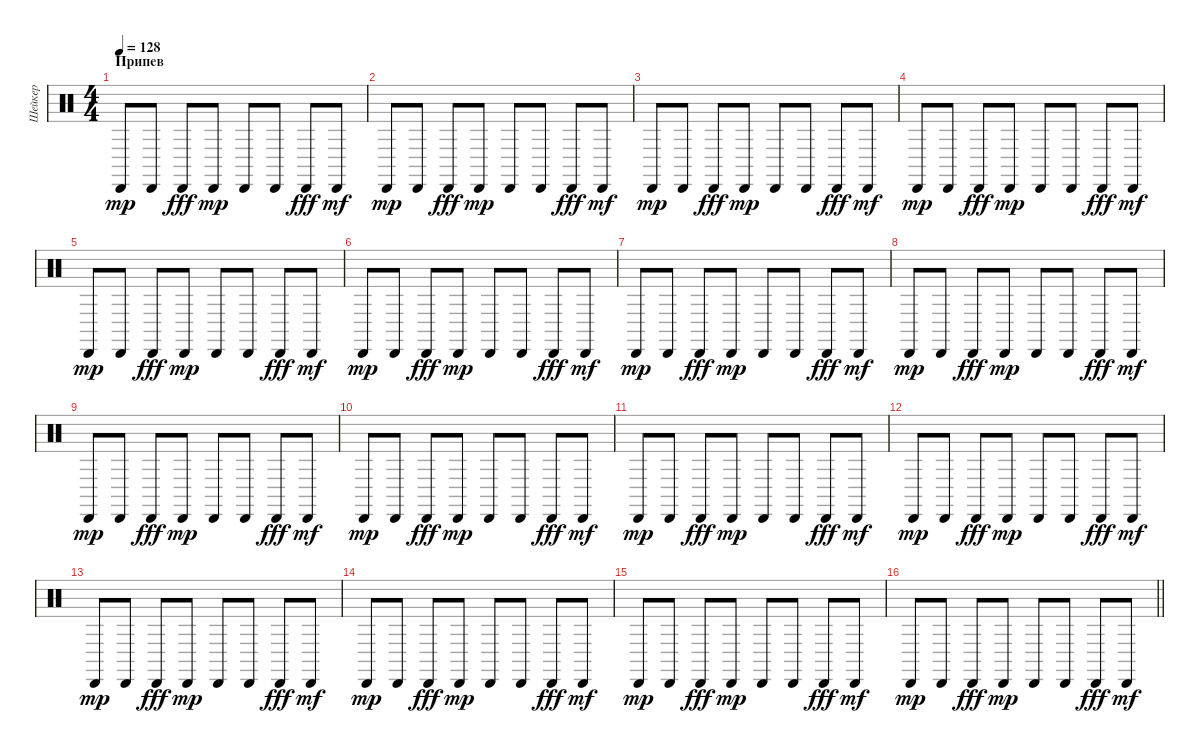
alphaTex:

\track ("Шейкер" "Шейкер") {instrument percussion}
\staff {score}
\articulation defaults
\ts (4 4)
\section ("" "Припев")
\tempo 128
\clef neutral
\ks c "Cabasa (hit)".8{dy mp} "Cabasa (hit)".8 "Cabasa (hit)".8{dy fff} "Cabasa (hit)".8{dy mp} "Cabasa (hit)".8 "Cabasa (hit)".8 "Cabasa (hit)".8{dy fff} "Cabasa (hit)".8{dy mf}
|
"Cabasa (hit)".8{dy mp} "Cabasa (hit)".8 "Cabasa (hit)".8{dy fff} "Cabasa (hit)".8{dy mp} "Cabasa (hit)".8 "Cabasa (hit)".8 "Cabasa (hit)".8{dy fff} "Cabasa (hit)".8{dy mf} |
"Cabasa (hit)".8{dy mp} "Cabasa (hit)".8 "Cabasa (hit)".8{dy fff} "Cabasa (hit)".8{dy mp} "Cabasa (hit)".8 "Cabasa (hit)".8 "Cabasa (hit)".8{dy fff} "Cabasa (hit)".8{dy mf} |
"Cabasa (hit)".8{dy mp} "Cabasa (hit)".8 "Cabasa (hit)".8{dy fff} "Cabasa (hit)".8{dy mp} "Cabasa (hit)".8 "Cabasa (hit)".8 "Cabasa (hit)".8{dy fff} "Cabasa (hit)".8{dy mf} |
"Cabasa (hit)".8{dy mp} "Cabasa (hit)".8 "Cabasa (hit)".8{dy fff} "Cabasa (hit)".8{dy mp} "Cabasa (hit)".8 "Cabasa (hit)".8 "Cabasa (hit)".8{dy fff} "Cabasa (hit)".8{dy mf} |
"Cabasa (hit)".8{dy mp} "Cabasa (hit)".8 "Cabasa (hit)".8{dy fff} "Cabasa (hit)".8{dy mp} "Cabasa (hit)".8 "Cabasa (hit)".8 "Cabasa (hit)".8{dy fff} "Cabasa (hit)".8{dy mf} |
"Cabasa (hit)".8{dy mp} "Cabasa (hit)".8 "Cabasa (hit)".8{dy fff} "Cabasa (hit)".8{dy mp} "Cabasa (hit)".8 "Cabasa (hit)".8 "Cabasa (hit)".8{dy fff} "Cabasa (hit)".8{dy mf} |
"Cabasa (hit)".8{dy mp} "Cabasa (hit)".8 "Cabasa (hit)".8{dy fff} "Cabasa (hit)".8{dy mp} "Cabasa (hit)".8 "Cabasa (hit)".8 "Cabasa (hit)".8{dy fff} "Cabasa (hit)".8{dy mf} |
"Cabasa (hit)".8{dy mp} "Cabasa (hit)".8 "Cabasa (hit)".8{dy fff} "Cabasa (hit)".8{dy mp} "Cabasa (hit)".8 "Cabasa (hit)".8 "Cabasa (hit)".8{dy fff} "Cabasa (hit)".8{dy mf} |
"Cabasa (hit)".8{dy mp} "Cabasa (hit)".8 "Cabasa (hit)".8{dy fff} "Cabasa (hit)".8{dy mp} "Cabasa (hit)".8 "Cabasa (hit)".8 "Cabasa (hit)".8{dy fff} "Cabasa (hit)".8{dy mf} |
"Cabasa (hit)".8{dy mp} "Cabasa (hit)".8 "Cabasa (hit)".8{dy fff} "Cabasa (hit)".8{dy mp} "Cabasa (hit)".8 "Cabasa (hit)".8 "Cabasa (hit)".8{dy fff} "Cabasa (hit)".8{dy mf} |
"Cabasa (hit)".8{dy mp} "Cabasa (hit)".8 "Cabasa (hit)".8{dy fff} "Cabasa (hit)".8{dy mp} "Cabasa (hit)".8 "Cabasa (hit)".8 "Cabasa (hit)".8{dy fff} "Cabasa (hit)".8{dy mf} |
"Cabasa (hit)".8{dy mp} "Cabasa (hit)".8 "Cabasa (hit)".8{dy fff} "Cabasa (hit)".8{dy mp} "Cabasa (hit)".8 "Cabasa (hit)".8 "Cabasa (hit)".8{dy fff} "Cabasa (hit)".8{dy mf} |
"Cabasa (hit)".8{dy mp} "Cabasa (hit)".8 "Cabasa (hit)".8{dy fff} "Cabasa (hit)".8{dy mp} "Cabasa (hit)".8 "Cabasa (hit)".8 "Cabasa (hit)".8{dy fff} "Cabasa (hit)".8{dy mf} |
"Cabasa (hit)".8{dy mp} "Cabasa (hit)".8 "Cabasa (hit)".8{dy fff} "Cabasa (hit)".8{dy mp} "Cabasa (hit)".8 "Cabasa (hit)".8 "Cabasa (hit)".8{dy fff} "Cabasa (hit)".8{dy mf} |
\barLineRight lightlight "Cabasa (hit)".8{dy mp} "Cabasa (hit)".8 "Cabasa (hit)".8{dy fff} "Cabasa (hit)".8{dy mp} "Cabasa (hit)".8 "Cabasa (hit)".8 "Cabasa (hit)".8{dy fff} "Cabasa (hit)".8{dy mf}
